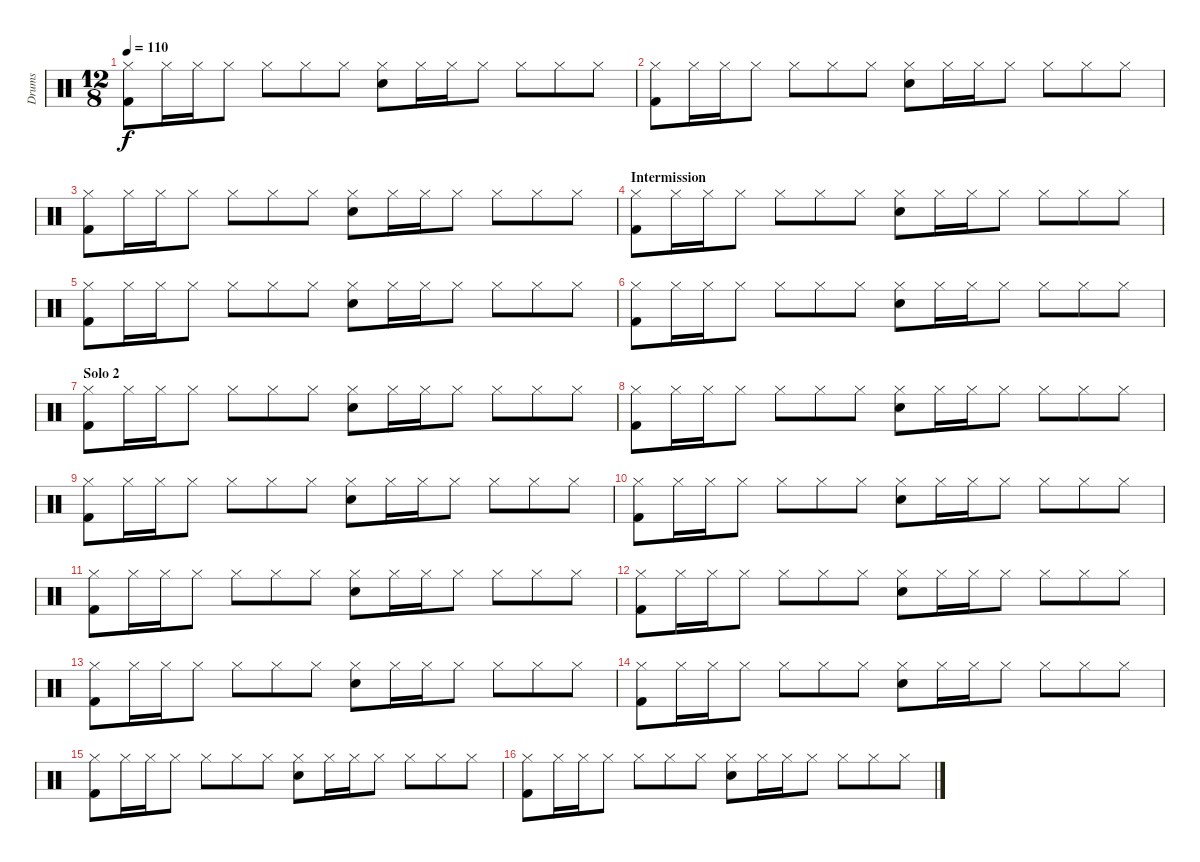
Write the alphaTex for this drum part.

\track ("Drums" "Drums") {instrument percussion}
\staff {score}
\articulation defaults
\ts (12 8)
\tempo 110
\clef neutral
\ks c
("Hi-Hat (closed)" "Kick (hit) 2").8{dy f} "Hi-Hat (closed)".16 "Hi-Hat (closed)".16 "Hi-Hat (closed)".8 "Hi-Hat (closed)".8 "Hi-Hat (closed)".8 "Hi-Hat (closed)".8 ("Hi-Hat (closed)" "Snare (hit) 2").8 "Hi-Hat (closed)".16 "Hi-Hat (closed)".16 "Hi-Hat (closed)".8 "Hi-Hat (closed)".8 "Hi-Hat (closed)".8 "Hi-Hat (closed)".8 |
("Hi-Hat (closed)" "Kick (hit) 2").8 "Hi-Hat (closed)".16 "Hi-Hat (closed)".16 "Hi-Hat (closed)".8 "Hi-Hat (closed)".8 "Hi-Hat (closed)".8 "Hi-Hat (closed)".8 ("Hi-Hat (closed)" "Snare (hit) 2").8 "Hi-Hat (closed)".16 "Hi-Hat (closed)".16 "Hi-Hat (closed)".8 "Hi-Hat (closed)".8 "Hi-Hat (closed)".8 "Hi-Hat (closed)".8 |
("Hi-Hat (closed)" "Kick (hit) 2").8 "Hi-Hat (closed)".16 "Hi-Hat (closed)".16 "Hi-Hat (closed)".8 "Hi-Hat (closed)".8 "Hi-Hat (closed)".8 "Hi-Hat (closed)".8 ("Hi-Hat (closed)" "Snare (hit) 2").8 "Hi-Hat (closed)".16 "Hi-Hat (closed)".16 "Hi-Hat (closed)".8 "Hi-Hat (closed)".8 "Hi-Hat (closed)".8 "Hi-Hat (closed)".8 |
\section ("" "Intermission")
("Hi-Hat (closed)" "Kick (hit) 2").8 "Hi-Hat (closed)".16 "Hi-Hat (closed)".16 "Hi-Hat (closed)".8 "Hi-Hat (closed)".8 "Hi-Hat (closed)".8 "Hi-Hat (closed)".8 ("Hi-Hat (closed)" "Snare (hit) 2").8 "Hi-Hat (closed)".16 "Hi-Hat (closed)".16 "Hi-Hat (closed)".8 "Hi-Hat (closed)".8 "Hi-Hat (closed)".8 "Hi-Hat (closed)".8 |
("Hi-Hat (closed)" "Kick (hit) 2").8 "Hi-Hat (closed)".16 "Hi-Hat (closed)".16 "Hi-Hat (closed)".8 "Hi-Hat (closed)".8 "Hi-Hat (closed)".8 "Hi-Hat (closed)".8 ("Hi-Hat (closed)" "Snare (hit) 2").8 "Hi-Hat (closed)".16 "Hi-Hat (closed)".16 "Hi-Hat (closed)".8 "Hi-Hat (closed)".8 "Hi-Hat (closed)".8 "Hi-Hat (closed)".8 |
("Hi-Hat (closed)" "Kick (hit) 2").8 "Hi-Hat (closed)".16 "Hi-Hat (closed)".16 "Hi-Hat (closed)".8 "Hi-Hat (closed)".8 "Hi-Hat (closed)".8 "Hi-Hat (closed)".8 ("Hi-Hat (closed)" "Snare (hit) 2").8 "Hi-Hat (closed)".16 "Hi-Hat (closed)".16 "Hi-Hat (closed)".8 "Hi-Hat (closed)".8 "Hi-Hat (closed)".8 "Hi-Hat (closed)".8 |
\section ("" "Solo 2")
("Hi-Hat (closed)" "Kick (hit) 2").8 "Hi-Hat (closed)".16 "Hi-Hat (closed)".16 "Hi-Hat (closed)".8 "Hi-Hat (closed)".8 "Hi-Hat (closed)".8 "Hi-Hat (closed)".8 ("Hi-Hat (closed)" "Snare (hit) 2").8 "Hi-Hat (closed)".16 "Hi-Hat (closed)".16 "Hi-Hat (closed)".8 "Hi-Hat (closed)".8 "Hi-Hat (closed)".8 "Hi-Hat (closed)".8 |
("Hi-Hat (closed)" "Kick (hit) 2").8 "Hi-Hat (closed)".16 "Hi-Hat (closed)".16 "Hi-Hat (closed)".8 "Hi-Hat (closed)".8 "Hi-Hat (closed)".8 "Hi-Hat (closed)".8 ("Hi-Hat (closed)" "Snare (hit) 2").8 "Hi-Hat (closed)".16 "Hi-Hat (closed)".16 "Hi-Hat (closed)".8 "Hi-Hat (closed)".8 "Hi-Hat (closed)".8 "Hi-Hat (closed)".8 |
("Hi-Hat (closed)" "Kick (hit) 2").8 "Hi-Hat (closed)".16 "Hi-Hat (closed)".16 "Hi-Hat (closed)".8 "Hi-Hat (closed)".8 "Hi-Hat (closed)".8 "Hi-Hat (closed)".8 ("Hi-Hat (closed)" "Snare (hit) 2").8 "Hi-Hat (closed)".16 "Hi-Hat (closed)".16 "Hi-Hat (closed)".8 "Hi-Hat (closed)".8 "Hi-Hat (closed)".8 "Hi-Hat (closed)".8 |
("Hi-Hat (closed)" "Kick (hit) 2").8 "Hi-Hat (closed)".16 "Hi-Hat (closed)".16 "Hi-Hat (closed)".8 "Hi-Hat (closed)".8 "Hi-Hat (closed)".8 "Hi-Hat (closed)".8 ("Hi-Hat (closed)" "Snare (hit) 2").8 "Hi-Hat (closed)".16 "Hi-Hat (closed)".16 "Hi-Hat (closed)".8 "Hi-Hat (closed)".8 "Hi-Hat (closed)".8 "Hi-Hat (closed)".8 |
("Hi-Hat (closed)" "Kick (hit) 2").8 "Hi-Hat (closed)".16 "Hi-Hat (closed)".16 "Hi-Hat (closed)".8 "Hi-Hat (closed)".8 "Hi-Hat (closed)".8 "Hi-Hat (closed)".8 ("Hi-Hat (closed)" "Snare (hit) 2").8 "Hi-Hat (closed)".16 "Hi-Hat (closed)".16 "Hi-Hat (closed)".8 "Hi-Hat (closed)".8 "Hi-Hat (closed)".8 "Hi-Hat (closed)".8 |
("Hi-Hat (closed)" "Kick (hit) 2").8 "Hi-Hat (closed)".16 "Hi-Hat (closed)".16 "Hi-Hat (closed)".8 "Hi-Hat (closed)".8 "Hi-Hat (closed)".8 "Hi-Hat (closed)".8 ("Hi-Hat (closed)" "Snare (hit) 2").8 "Hi-Hat (closed)".16 "Hi-Hat (closed)".16 "Hi-Hat (closed)".8 "Hi-Hat (closed)".8 "Hi-Hat (closed)".8 "Hi-Hat (closed)".8 |
("Hi-Hat (closed)" "Kick (hit) 2").8 "Hi-Hat (closed)".16 "Hi-Hat (closed)".16 "Hi-Hat (closed)".8 "Hi-Hat (closed)".8 "Hi-Hat (closed)".8 "Hi-Hat (closed)".8 ("Hi-Hat (closed)" "Snare (hit) 2").8 "Hi-Hat (closed)".16 "Hi-Hat (closed)".16 "Hi-Hat (closed)".8 "Hi-Hat (closed)".8 "Hi-Hat (closed)".8 "Hi-Hat (closed)".8 |
("Hi-Hat (closed)" "Kick (hit) 2").8 "Hi-Hat (closed)".16 "Hi-Hat (closed)".16 "Hi-Hat (closed)".8 "Hi-Hat (closed)".8 "Hi-Hat (closed)".8 "Hi-Hat (closed)".8 ("Hi-Hat (closed)" "Snare (hit) 2").8 "Hi-Hat (closed)".16 "Hi-Hat (closed)".16 "Hi-Hat (closed)".8 "Hi-Hat (closed)".8 "Hi-Hat (closed)".8 "Hi-Hat (closed)".8 |
("Hi-Hat (closed)" "Kick (hit) 2").8 "Hi-Hat (closed)".16 "Hi-Hat (closed)".16 "Hi-Hat (closed)".8 "Hi-Hat (closed)".8 "Hi-Hat (closed)".8 "Hi-Hat (closed)".8 ("Hi-Hat (closed)" "Snare (hit) 2").8 "Hi-Hat (closed)".16 "Hi-Hat (closed)".16 "Hi-Hat (closed)".8 "Hi-Hat (closed)".8 "Hi-Hat (closed)".8 "Hi-Hat (closed)".8 |
("Hi-Hat (closed)" "Kick (hit) 2").8 "Hi-Hat (closed)".16 "Hi-Hat (closed)".16 "Hi-Hat (closed)".8 "Hi-Hat (closed)".8 "Hi-Hat (closed)".8 "Hi-Hat (closed)".8 ("Hi-Hat (closed)" "Snare (hit) 2").8 "Hi-Hat (closed)".16 "Hi-Hat (closed)".16 "Hi-Hat (closed)".8 "Hi-Hat (closed)".8 "Hi-Hat (closed)".8 "Hi-Hat (closed)".8
